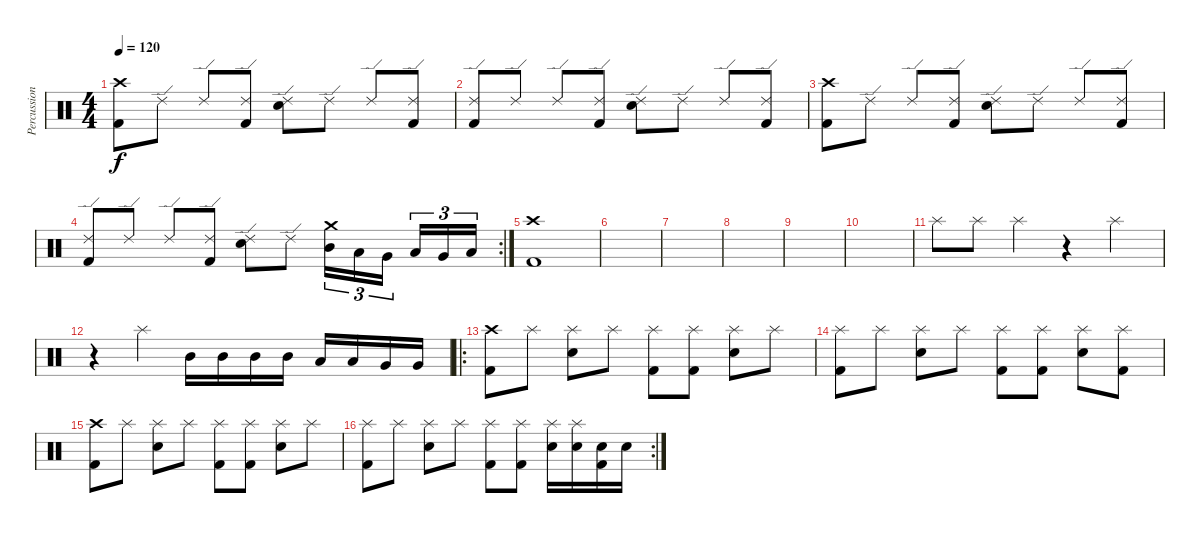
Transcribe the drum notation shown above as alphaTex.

\track ("Percussion" "Percussion") {instrument percussion}
\staff {score}
\articulation defaults
\ts (4 4)
\tempo 120
\clef neutral
\ks c
("Crash high (hit)" "Kick (hit) 2").8{dy f} "Ride (edge) 2".8 "Ride (edge) 2".8 ("Ride (edge) 2" "Kick (hit) 2").8 ("Ride (edge) 2" "Electric Snare (hit)").8 "Ride (edge) 2".8 "Ride (edge) 2".8 ("Ride (edge) 2" "Kick (hit) 2").8 |
("Ride (edge) 2" "Kick (hit) 2").8 "Ride (edge) 2".8 "Ride (edge) 2".8 ("Ride (edge) 2" "Kick (hit) 2").8 ("Ride (edge) 2" "Electric Snare (hit)").8 "Ride (edge) 2".8 "Ride (edge) 2".8 ("Ride (edge) 2" "Kick (hit) 2").8 |
("Crash high (hit)" "Kick (hit) 2").8 "Ride (edge) 2".8 "Ride (edge) 2".8 ("Ride (edge) 2" "Kick (hit) 2").8 ("Ride (edge) 2" "Electric Snare (hit)").8 "Ride (edge) 2".8 "Ride (edge) 2".8 ("Ride (edge) 2" "Kick (hit) 2").8 |
\rc 2
("Ride (edge) 2" "Kick (hit) 2").8 "Ride (edge) 2".8 "Ride (edge) 2".8 ("Ride (edge) 2" "Kick (hit) 2").8 ("Ride (edge) 2" "Electric Snare (hit)").8 "Ride (edge) 2".8 ("Crash medium (hit)" "Mid Tom (hit)").16{tu (3 2)} "Low Tom (hit)".16{tu (3 2)} "Very Low Tom (hit)".16{tu (3 2) beam splitsecondary} "Low Tom (hit)".16{tu (3 2)} "Very Low Tom (hit)".16{tu (3 2)} "Low Floor Tom (hit)".16{tu (3 2)} |
("Crash high (hit)" "Kick (hit) 2").1 |
|
|
|
|
|
"Splash (hit)".8 "Splash (hit)".8 "Splash (hit)".4 r.4 "Splash (hit)".4 |
r.4 "Splash (hit)".4 "Mid Tom (hit)".16 "Mid Tom (hit)".16 "Mid Tom (hit)".16 "Mid Tom (hit)".16 "Low Tom (hit)".16 "Low Tom (hit)".16 "Very Low Tom (hit)".16 "Very Low Tom (hit)".16 |
\ro
("Crash high (hit)" "Kick (hit) 2").8 "Splash (hit)".8 ("Splash (hit)" "Electric Snare (hit)").8 "Splash (hit)".8 ("Splash (hit)" "Kick (hit) 2").8 ("Splash (hit)" "Kick (hit) 2").8 ("Splash (hit)" "Electric Snare (hit)").8 "Splash (hit)".8 |
("Splash (hit)" "Kick (hit) 2").8 "Splash (hit)".8 ("Splash (hit)" "Electric Snare (hit)").8 "Splash (hit)".8 ("Splash (hit)" "Kick (hit) 2").8 ("Splash (hit)" "Kick (hit) 2").8 ("Splash (hit)" "Electric Snare (hit)").8 ("Splash (hit)" "Kick (hit) 2").8 |
("Crash high (hit)" "Kick (hit) 2").8 "Splash (hit)".8 ("Splash (hit)" "Electric Snare (hit)").8 "Splash (hit)".8 ("Splash (hit)" "Kick (hit) 2").8 ("Splash (hit)" "Kick (hit) 2").8 ("Splash (hit)" "Electric Snare (hit)").8 "Splash (hit)".8 |
\rc 2
("Splash (hit)" "Kick (hit) 2").8 "Splash (hit)".8 ("Splash (hit)" "Electric Snare (hit)").8 "Splash (hit)".8 ("Splash (hit)" "Kick (hit) 2").8 ("Splash (hit)" "Kick (hit) 2").8 ("Splash (hit)" "Electric Snare (hit)").16 ("Splash (hit)" "Electric Snare (hit)").16 ("Electric Snare (hit)" "Kick (hit) 2").16 "Electric Snare (hit)".16
